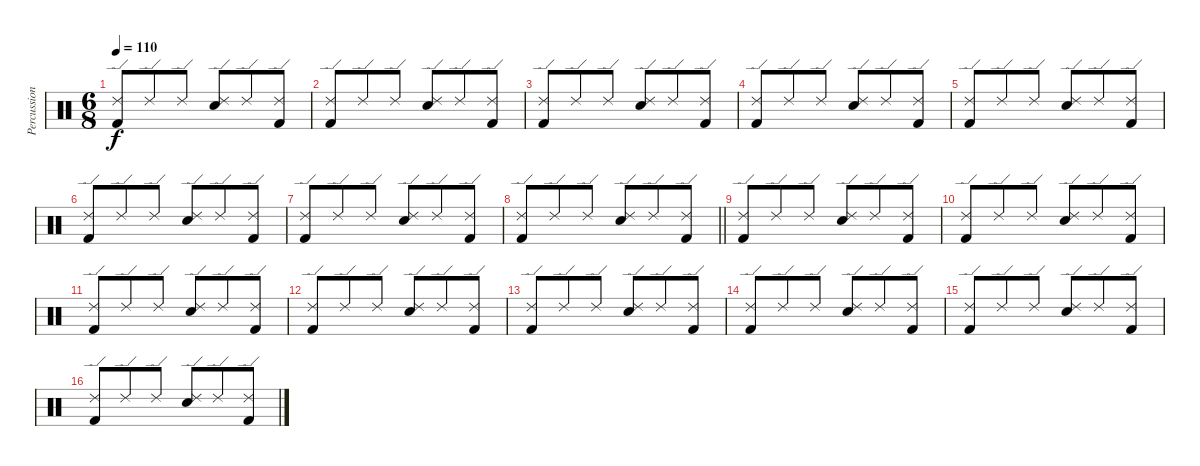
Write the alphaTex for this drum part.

\track ("Percussion" "Percussion") {instrument percussion}
\staff {score}
\articulation defaults
\ts (6 8)
\tempo 110
\clef neutral
\ks c
("Ride (edge) 2" "Kick (hit) 2").8{dy f} "Ride (edge) 2".8 "Ride (edge) 2".8 ("Ride (edge) 2" "Snare (hit) 2").8 "Ride (edge) 2".8 ("Ride (edge) 2" "Kick (hit) 2").8 |
("Ride (edge) 2" "Kick (hit) 2").8 "Ride (edge) 2".8 "Ride (edge) 2".8 ("Ride (edge) 2" "Snare (hit) 2").8 "Ride (edge) 2".8 ("Ride (edge) 2" "Kick (hit) 2").8 |
("Ride (edge) 2" "Kick (hit) 2").8 "Ride (edge) 2".8 "Ride (edge) 2".8 ("Ride (edge) 2" "Snare (hit) 2").8 "Ride (edge) 2".8 ("Ride (edge) 2" "Kick (hit) 2").8 |
("Ride (edge) 2" "Kick (hit) 2").8 "Ride (edge) 2".8 "Ride (edge) 2".8 ("Ride (edge) 2" "Snare (hit) 2").8 "Ride (edge) 2".8 ("Ride (edge) 2" "Kick (hit) 2").8 |
("Ride (edge) 2" "Kick (hit) 2").8 "Ride (edge) 2".8 "Ride (edge) 2".8 ("Ride (edge) 2" "Snare (hit) 2").8 "Ride (edge) 2".8 ("Ride (edge) 2" "Kick (hit) 2").8 |
("Ride (edge) 2" "Kick (hit) 2").8 "Ride (edge) 2".8 "Ride (edge) 2".8 ("Ride (edge) 2" "Snare (hit) 2").8 "Ride (edge) 2".8 ("Ride (edge) 2" "Kick (hit) 2").8 |
("Ride (edge) 2" "Kick (hit) 2").8 "Ride (edge) 2".8 "Ride (edge) 2".8 ("Ride (edge) 2" "Snare (hit) 2").8 "Ride (edge) 2".8 ("Ride (edge) 2" "Kick (hit) 2").8 |
\barLineRight lightlight
("Ride (edge) 2" "Kick (hit) 2").8 "Ride (edge) 2".8 "Ride (edge) 2".8 ("Ride (edge) 2" "Snare (hit) 2").8 "Ride (edge) 2".8 ("Ride (edge) 2" "Kick (hit) 2").8 |
("Ride (edge) 2" "Kick (hit) 2").8 "Ride (edge) 2".8 "Ride (edge) 2".8 ("Ride (edge) 2" "Snare (hit) 2").8 "Ride (edge) 2".8 ("Ride (edge) 2" "Kick (hit) 2").8 |
("Ride (edge) 2" "Kick (hit) 2").8 "Ride (edge) 2".8 "Ride (edge) 2".8 ("Ride (edge) 2" "Snare (hit) 2").8 "Ride (edge) 2".8 ("Ride (edge) 2" "Kick (hit) 2").8 |
("Ride (edge) 2" "Kick (hit) 2").8 "Ride (edge) 2".8 "Ride (edge) 2".8 ("Ride (edge) 2" "Snare (hit) 2").8 "Ride (edge) 2".8 ("Ride (edge) 2" "Kick (hit) 2").8 |
("Ride (edge) 2" "Kick (hit) 2").8 "Ride (edge) 2".8 "Ride (edge) 2".8 ("Ride (edge) 2" "Snare (hit) 2").8 "Ride (edge) 2".8 ("Ride (edge) 2" "Kick (hit) 2").8 |
("Ride (edge) 2" "Kick (hit) 2").8 "Ride (edge) 2".8 "Ride (edge) 2".8 ("Ride (edge) 2" "Snare (hit) 2").8 "Ride (edge) 2".8 ("Ride (edge) 2" "Kick (hit) 2").8 |
("Ride (edge) 2" "Kick (hit) 2").8 "Ride (edge) 2".8 "Ride (edge) 2".8 ("Ride (edge) 2" "Snare (hit) 2").8 "Ride (edge) 2".8 ("Ride (edge) 2" "Kick (hit) 2").8 |
("Ride (edge) 2" "Kick (hit) 2").8 "Ride (edge) 2".8 "Ride (edge) 2".8 ("Ride (edge) 2" "Snare (hit) 2").8 "Ride (edge) 2".8 ("Ride (edge) 2" "Kick (hit) 2").8 |
("Ride (edge) 2" "Kick (hit) 2").8 "Ride (edge) 2".8 "Ride (edge) 2".8 ("Ride (edge) 2" "Snare (hit) 2").8 "Ride (edge) 2".8 ("Ride (edge) 2" "Kick (hit) 2").8
